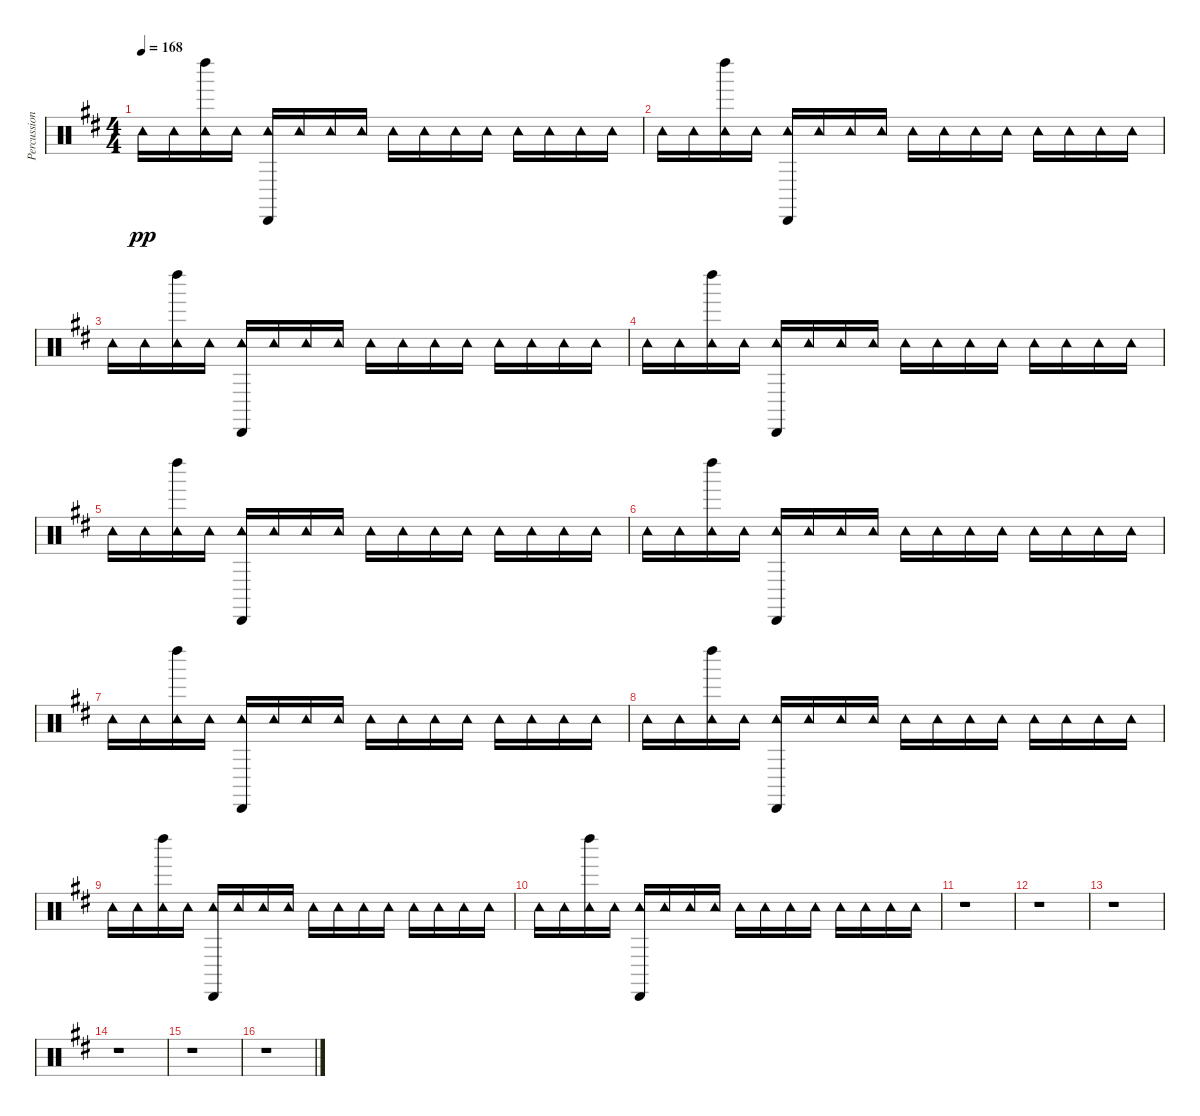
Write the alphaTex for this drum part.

\track ("Percussions" "Percussion") {instrument percussion}
\staff {score}
\articulation defaults
\ts (4 4)
\tempo 168
\clef neutral
\ks d "Tambourine (hit)".16{dy pp} "Tambourine (hit)".16
("Left Maraca (hit)" "Tambourine (hit)").16 "Tambourine (hit)".16 ("Cabasa (hit)" "Tambourine (hit)").16 "Tambourine (hit)".16 "Tambourine (hit)".16 "Tambourine (hit)".16 "Tambourine (hit)".16 "Tambourine (hit)".16 "Tambourine (hit)".16 "Tambourine (hit)".16 "Tambourine (hit)".16 "Tambourine (hit)".16 "Tambourine (hit)".16 "Tambourine (hit)".16 |
"Tambourine (hit)".16 "Tambourine (hit)".16 ("Left Maraca (hit)" "Tambourine (hit)").16 "Tambourine (hit)".16 ("Cabasa (hit)" "Tambourine (hit)").16 "Tambourine (hit)".16 "Tambourine (hit)".16 "Tambourine (hit)".16 "Tambourine (hit)".16 "Tambourine (hit)".16 "Tambourine (hit)".16 "Tambourine (hit)".16 "Tambourine (hit)".16 "Tambourine (hit)".16 "Tambourine (hit)".16 "Tambourine (hit)".16 |
"Tambourine (hit)".16{volume 6} "Tambourine (hit)".16 ("Left Maraca (hit)" "Tambourine (hit)").16 "Tambourine (hit)".16 ("Cabasa (hit)" "Tambourine (hit)").16 "Tambourine (hit)".16 "Tambourine (hit)".16 "Tambourine (hit)".16 "Tambourine (hit)".16 "Tambourine (hit)".16 "Tambourine (hit)".16 "Tambourine (hit)".16 "Tambourine (hit)".16 "Tambourine (hit)".16 "Tambourine (hit)".16 "Tambourine (hit)".16 |
"Tambourine (hit)".16 "Tambourine (hit)".16 ("Left Maraca (hit)" "Tambourine (hit)").16 "Tambourine (hit)".16 ("Cabasa (hit)" "Tambourine (hit)").16 "Tambourine (hit)".16 "Tambourine (hit)".16 "Tambourine (hit)".16 "Tambourine (hit)".16 "Tambourine (hit)".16 "Tambourine (hit)".16 "Tambourine (hit)".16 "Tambourine (hit)".16 "Tambourine (hit)".16 "Tambourine (hit)".16 "Tambourine (hit)".16 |
"Tambourine (hit)".16 "Tambourine (hit)".16 ("Left Maraca (hit)" "Tambourine (hit)").16 "Tambourine (hit)".16 ("Cabasa (hit)" "Tambourine (hit)").16 "Tambourine (hit)".16 "Tambourine (hit)".16 "Tambourine (hit)".16 "Tambourine (hit)".16 "Tambourine (hit)".16 "Tambourine (hit)".16 "Tambourine (hit)".16 "Tambourine (hit)".16 "Tambourine (hit)".16 "Tambourine (hit)".16 "Tambourine (hit)".16 |
"Tambourine (hit)".16 "Tambourine (hit)".16 ("Left Maraca (hit)" "Tambourine (hit)").16 "Tambourine (hit)".16 ("Cabasa (hit)" "Tambourine (hit)").16 "Tambourine (hit)".16 "Tambourine (hit)".16 "Tambourine (hit)".16 "Tambourine (hit)".16 "Tambourine (hit)".16 "Tambourine (hit)".16 "Tambourine (hit)".16 "Tambourine (hit)".16 "Tambourine (hit)".16 "Tambourine (hit)".16 "Tambourine (hit)".16 |
"Tambourine (hit)".16{volume 0} "Tambourine (hit)".16 ("Left Maraca (hit)" "Tambourine (hit)").16 "Tambourine (hit)".16 ("Cabasa (hit)" "Tambourine (hit)").16 "Tambourine (hit)".16 "Tambourine (hit)".16 "Tambourine (hit)".16 "Tambourine (hit)".16 "Tambourine (hit)".16 "Tambourine (hit)".16 "Tambourine (hit)".16 "Tambourine (hit)".16 "Tambourine (hit)".16 "Tambourine (hit)".16 "Tambourine (hit)".16 |
"Tambourine (hit)".16 "Tambourine (hit)".16 ("Left Maraca (hit)" "Tambourine (hit)").16 "Tambourine (hit)".16 ("Cabasa (hit)" "Tambourine (hit)").16 "Tambourine (hit)".16 "Tambourine (hit)".16 "Tambourine (hit)".16 "Tambourine (hit)".16 "Tambourine (hit)".16 "Tambourine (hit)".16 "Tambourine (hit)".16 "Tambourine (hit)".16 "Tambourine (hit)".16 "Tambourine (hit)".16 "Tambourine (hit)".16 |
"Tambourine (hit)".16 "Tambourine (hit)".16 ("Left Maraca (hit)" "Tambourine (hit)").16 "Tambourine (hit)".16 ("Cabasa (hit)" "Tambourine (hit)").16 "Tambourine (hit)".16 "Tambourine (hit)".16 "Tambourine (hit)".16 "Tambourine (hit)".16 "Tambourine (hit)".16 "Tambourine (hit)".16 "Tambourine (hit)".16 "Tambourine (hit)".16 "Tambourine (hit)".16 "Tambourine (hit)".16 "Tambourine (hit)".16 |
"Tambourine (hit)".16 "Tambourine (hit)".16 ("Left Maraca (hit)" "Tambourine (hit)").16 "Tambourine (hit)".16 ("Cabasa (hit)" "Tambourine (hit)").16 "Tambourine (hit)".16 "Tambourine (hit)".16 "Tambourine (hit)".16 "Tambourine (hit)".16 "Tambourine (hit)".16 "Tambourine (hit)".16 "Tambourine (hit)".16 "Tambourine (hit)".16 "Tambourine (hit)".16 "Tambourine (hit)".16 "Tambourine (hit)".16 |
r.1 |
r.1 |
r.1 |
r.1 |
r.1 |
r.1
